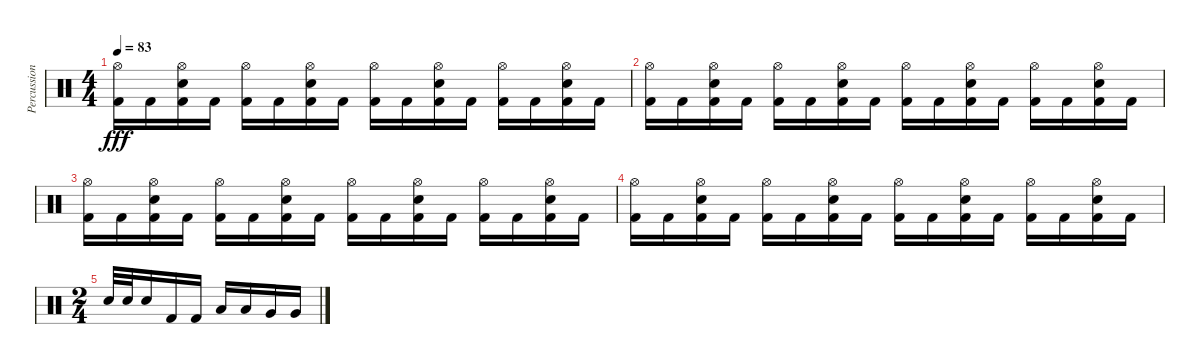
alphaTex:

\track ("Percussions" "Percussion") {instrument percussion}
\staff {score}
\articulation defaults
\ts (4 4)
\tempo 83
\clef neutral
\ks c
("Hi-Hat (open)" "Kick (hit) 2").16{dy fff} "Kick (hit) 2".16 ("Hi-Hat (open)" "Electric Snare (hit)" "Kick (hit) 2").16 "Kick (hit) 2".16 ("Hi-Hat (open)" "Kick (hit) 2").16 "Kick (hit) 2".16 ("Hi-Hat (open)" "Electric Snare (hit)" "Kick (hit) 2").16 "Kick (hit) 2".16 ("Hi-Hat (open)" "Kick (hit) 2").16 "Kick (hit) 2".16 ("Hi-Hat (open)" "Electric Snare (hit)" "Kick (hit) 2").16 "Kick (hit) 2".16 ("Hi-Hat (open)" "Kick (hit) 2").16 "Kick (hit) 2".16 ("Hi-Hat (open)" "Electric Snare (hit)" "Kick (hit) 2").16 "Kick (hit) 2".16 |
("Hi-Hat (open)" "Kick (hit) 2").16 "Kick (hit) 2".16 ("Hi-Hat (open)" "Electric Snare (hit)" "Kick (hit) 2").16 "Kick (hit) 2".16 ("Hi-Hat (open)" "Kick (hit) 2").16 "Kick (hit) 2".16 ("Hi-Hat (open)" "Electric Snare (hit)" "Kick (hit) 2").16 "Kick (hit) 2".16 ("Hi-Hat (open)" "Kick (hit) 2").16 "Kick (hit) 2".16 ("Hi-Hat (open)" "Electric Snare (hit)" "Kick (hit) 2").16 "Kick (hit) 2".16 ("Hi-Hat (open)" "Kick (hit) 2").16 "Kick (hit) 2".16 ("Hi-Hat (open)" "Electric Snare (hit)" "Kick (hit) 2").16 "Kick (hit) 2".16 |
("Hi-Hat (open)" "Kick (hit) 2").16 "Kick (hit) 2".16 ("Hi-Hat (open)" "Electric Snare (hit)" "Kick (hit) 2").16 "Kick (hit) 2".16 ("Hi-Hat (open)" "Kick (hit) 2").16 "Kick (hit) 2".16 ("Hi-Hat (open)" "Electric Snare (hit)" "Kick (hit) 2").16 "Kick (hit) 2".16 ("Hi-Hat (open)" "Kick (hit) 2").16 "Kick (hit) 2".16 ("Hi-Hat (open)" "Electric Snare (hit)" "Kick (hit) 2").16 "Kick (hit) 2".16 ("Hi-Hat (open)" "Kick (hit) 2").16 "Kick (hit) 2".16 ("Hi-Hat (open)" "Electric Snare (hit)" "Kick (hit) 2").16 "Kick (hit) 2".16 |
("Hi-Hat (open)" "Kick (hit) 2").16 "Kick (hit) 2".16 ("Hi-Hat (open)" "Electric Snare (hit)" "Kick (hit) 2").16 "Kick (hit) 2".16 ("Hi-Hat (open)" "Kick (hit) 2").16 "Kick (hit) 2".16 ("Hi-Hat (open)" "Electric Snare (hit)" "Kick (hit) 2").16 "Kick (hit) 2".16 ("Hi-Hat (open)" "Kick (hit) 2").16 "Kick (hit) 2".16 ("Hi-Hat (open)" "Electric Snare (hit)" "Kick (hit) 2").16 "Kick (hit) 2".16 ("Hi-Hat (open)" "Kick (hit) 2").16 "Kick (hit) 2".16 ("Hi-Hat (open)" "Electric Snare (hit)" "Kick (hit) 2").16 "Kick (hit) 2".16 |
\ts (2 4)
"Electric Snare (hit)".32 "Electric Snare (hit)".32 "Electric Snare (hit)".16 "Kick (hit) 2".16 "Kick (hit) 2".16 "Low Tom (hit)".16 "Low Tom (hit)".16 "Very Low Tom (hit)".16 "Very Low Tom (hit)".16
